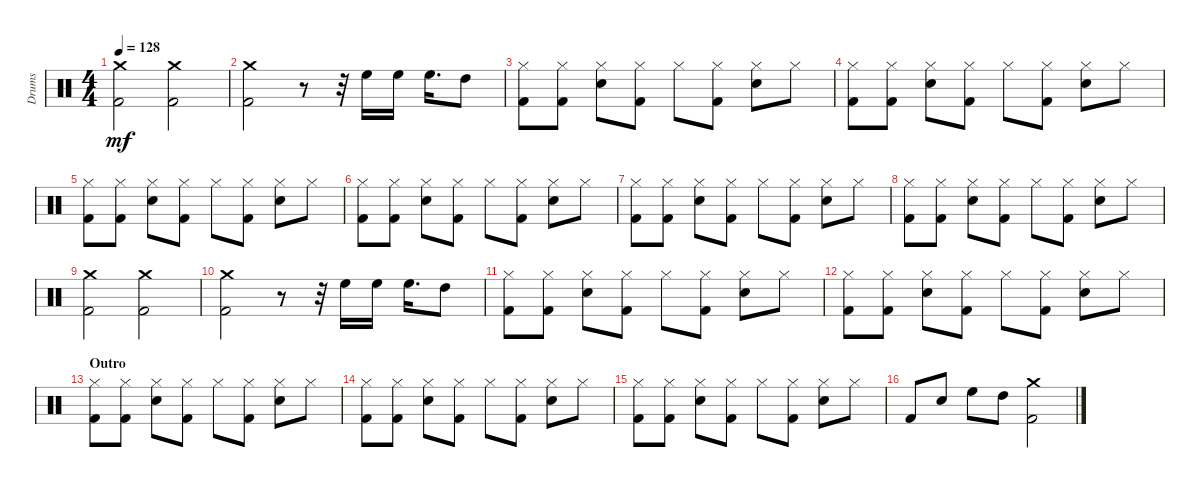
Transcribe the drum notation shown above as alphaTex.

\track ("Drums" "Drums") {instrument percussion}
\staff {score}
\articulation defaults
\ts (4 4)
\tempo 128
\clef neutral
\ks c
("Crash medium (hit)" "Kick (hit) 2").2{dy mf} ("Crash medium (hit)" "Kick (hit) 2").2 |
("Crash medium (hit)" "Kick (hit) 2").2 r.8 r.32 "High Floor Tom (hit)".16 "High Floor Tom (hit)".16 "High Floor Tom (hit)".16{d} "High Tom (hit)".8 |
("Hi-Hat (closed)" "Kick (hit) 2").8 ("Hi-Hat (closed)" "Kick (hit) 2").8 ("Hi-Hat (closed)" "Snare (hit) 2").8 ("Hi-Hat (closed)" "Kick (hit) 2").8 "Hi-Hat (closed)".8 ("Hi-Hat (closed)" "Kick (hit) 2").8 ("Hi-Hat (closed)" "Snare (hit) 2").8 "Hi-Hat (closed)".8 |
("Hi-Hat (closed)" "Kick (hit) 2").8 ("Hi-Hat (closed)" "Kick (hit) 2").8 ("Hi-Hat (closed)" "Snare (hit) 2").8 ("Hi-Hat (closed)" "Kick (hit) 2").8 "Hi-Hat (closed)".8 ("Hi-Hat (closed)" "Kick (hit) 2").8 ("Hi-Hat (closed)" "Snare (hit) 2").8 "Hi-Hat (closed)".8 |
("Hi-Hat (closed)" "Kick (hit) 2").8 ("Hi-Hat (closed)" "Kick (hit) 2").8 ("Hi-Hat (closed)" "Snare (hit) 2").8 ("Hi-Hat (closed)" "Kick (hit) 2").8 "Hi-Hat (closed)".8 ("Hi-Hat (closed)" "Kick (hit) 2").8 ("Hi-Hat (closed)" "Snare (hit) 2").8 "Hi-Hat (closed)".8 |
("Hi-Hat (closed)" "Kick (hit) 2").8 ("Hi-Hat (closed)" "Kick (hit) 2").8 ("Hi-Hat (closed)" "Snare (hit) 2").8 ("Hi-Hat (closed)" "Kick (hit) 2").8 "Hi-Hat (closed)".8 ("Hi-Hat (closed)" "Kick (hit) 2").8 ("Hi-Hat (closed)" "Snare (hit) 2").8 "Hi-Hat (closed)".8 |
("Hi-Hat (closed)" "Kick (hit) 2").8 ("Hi-Hat (closed)" "Kick (hit) 2").8 ("Hi-Hat (closed)" "Snare (hit) 2").8 ("Hi-Hat (closed)" "Kick (hit) 2").8 "Hi-Hat (closed)".8 ("Hi-Hat (closed)" "Kick (hit) 2").8 ("Hi-Hat (closed)" "Snare (hit) 2").8 "Hi-Hat (closed)".8 |
("Hi-Hat (closed)" "Kick (hit) 2").8 ("Hi-Hat (closed)" "Kick (hit) 2").8 ("Hi-Hat (closed)" "Snare (hit) 2").8 ("Hi-Hat (closed)" "Kick (hit) 2").8 "Hi-Hat (closed)".8 ("Hi-Hat (closed)" "Kick (hit) 2").8 ("Hi-Hat (closed)" "Snare (hit) 2").8 "Hi-Hat (closed)".8 |
("Crash medium (hit)" "Kick (hit) 2").2 ("Crash medium (hit)" "Kick (hit) 2").2 |
("Crash medium (hit)" "Kick (hit) 2").2 r.8 r.32 "High Floor Tom (hit)".16 "High Floor Tom (hit)".16 "High Floor Tom (hit)".16{d} "High Tom (hit)".8 |
("Hi-Hat (closed)" "Kick (hit) 2").8 ("Hi-Hat (closed)" "Kick (hit) 2").8 ("Hi-Hat (closed)" "Snare (hit) 2").8 ("Hi-Hat (closed)" "Kick (hit) 2").8 "Hi-Hat (closed)".8 ("Hi-Hat (closed)" "Kick (hit) 2").8 ("Hi-Hat (closed)" "Snare (hit) 2").8 "Hi-Hat (closed)".8 |
("Hi-Hat (closed)" "Kick (hit) 2").8 ("Hi-Hat (closed)" "Kick (hit) 2").8 ("Hi-Hat (closed)" "Snare (hit) 2").8 ("Hi-Hat (closed)" "Kick (hit) 2").8 "Hi-Hat (closed)".8 ("Hi-Hat (closed)" "Kick (hit) 2").8 ("Hi-Hat (closed)" "Snare (hit) 2").8 "Hi-Hat (closed)".8 |
\section ("" "Outro")
("Hi-Hat (closed)" "Kick (hit) 2").8 ("Hi-Hat (closed)" "Kick (hit) 2").8 ("Hi-Hat (closed)" "Snare (hit) 2").8 ("Hi-Hat (closed)" "Kick (hit) 2").8 "Hi-Hat (closed)".8 ("Hi-Hat (closed)" "Kick (hit) 2").8 ("Hi-Hat (closed)" "Snare (hit) 2").8 "Hi-Hat (closed)".8 |
("Hi-Hat (closed)" "Kick (hit) 2").8 ("Hi-Hat (closed)" "Kick (hit) 2").8 ("Hi-Hat (closed)" "Snare (hit) 2").8 ("Hi-Hat (closed)" "Kick (hit) 2").8 "Hi-Hat (closed)".8 ("Hi-Hat (closed)" "Kick (hit) 2").8 ("Hi-Hat (closed)" "Snare (hit) 2").8 "Hi-Hat (closed)".8 |
("Hi-Hat (closed)" "Kick (hit) 2").8 ("Hi-Hat (closed)" "Kick (hit) 2").8 ("Hi-Hat (closed)" "Snare (hit) 2").8 ("Hi-Hat (closed)" "Kick (hit) 2").8 "Hi-Hat (closed)".8 ("Hi-Hat (closed)" "Kick (hit) 2").8 ("Hi-Hat (closed)" "Snare (hit) 2").8 "Hi-Hat (closed)".8 |
"Kick (hit) 2".8 "Snare (hit) 2".8 "High Floor Tom (hit)".8 "High Tom (hit)".8 ("Crash medium (hit)" "Kick (hit) 2").2
